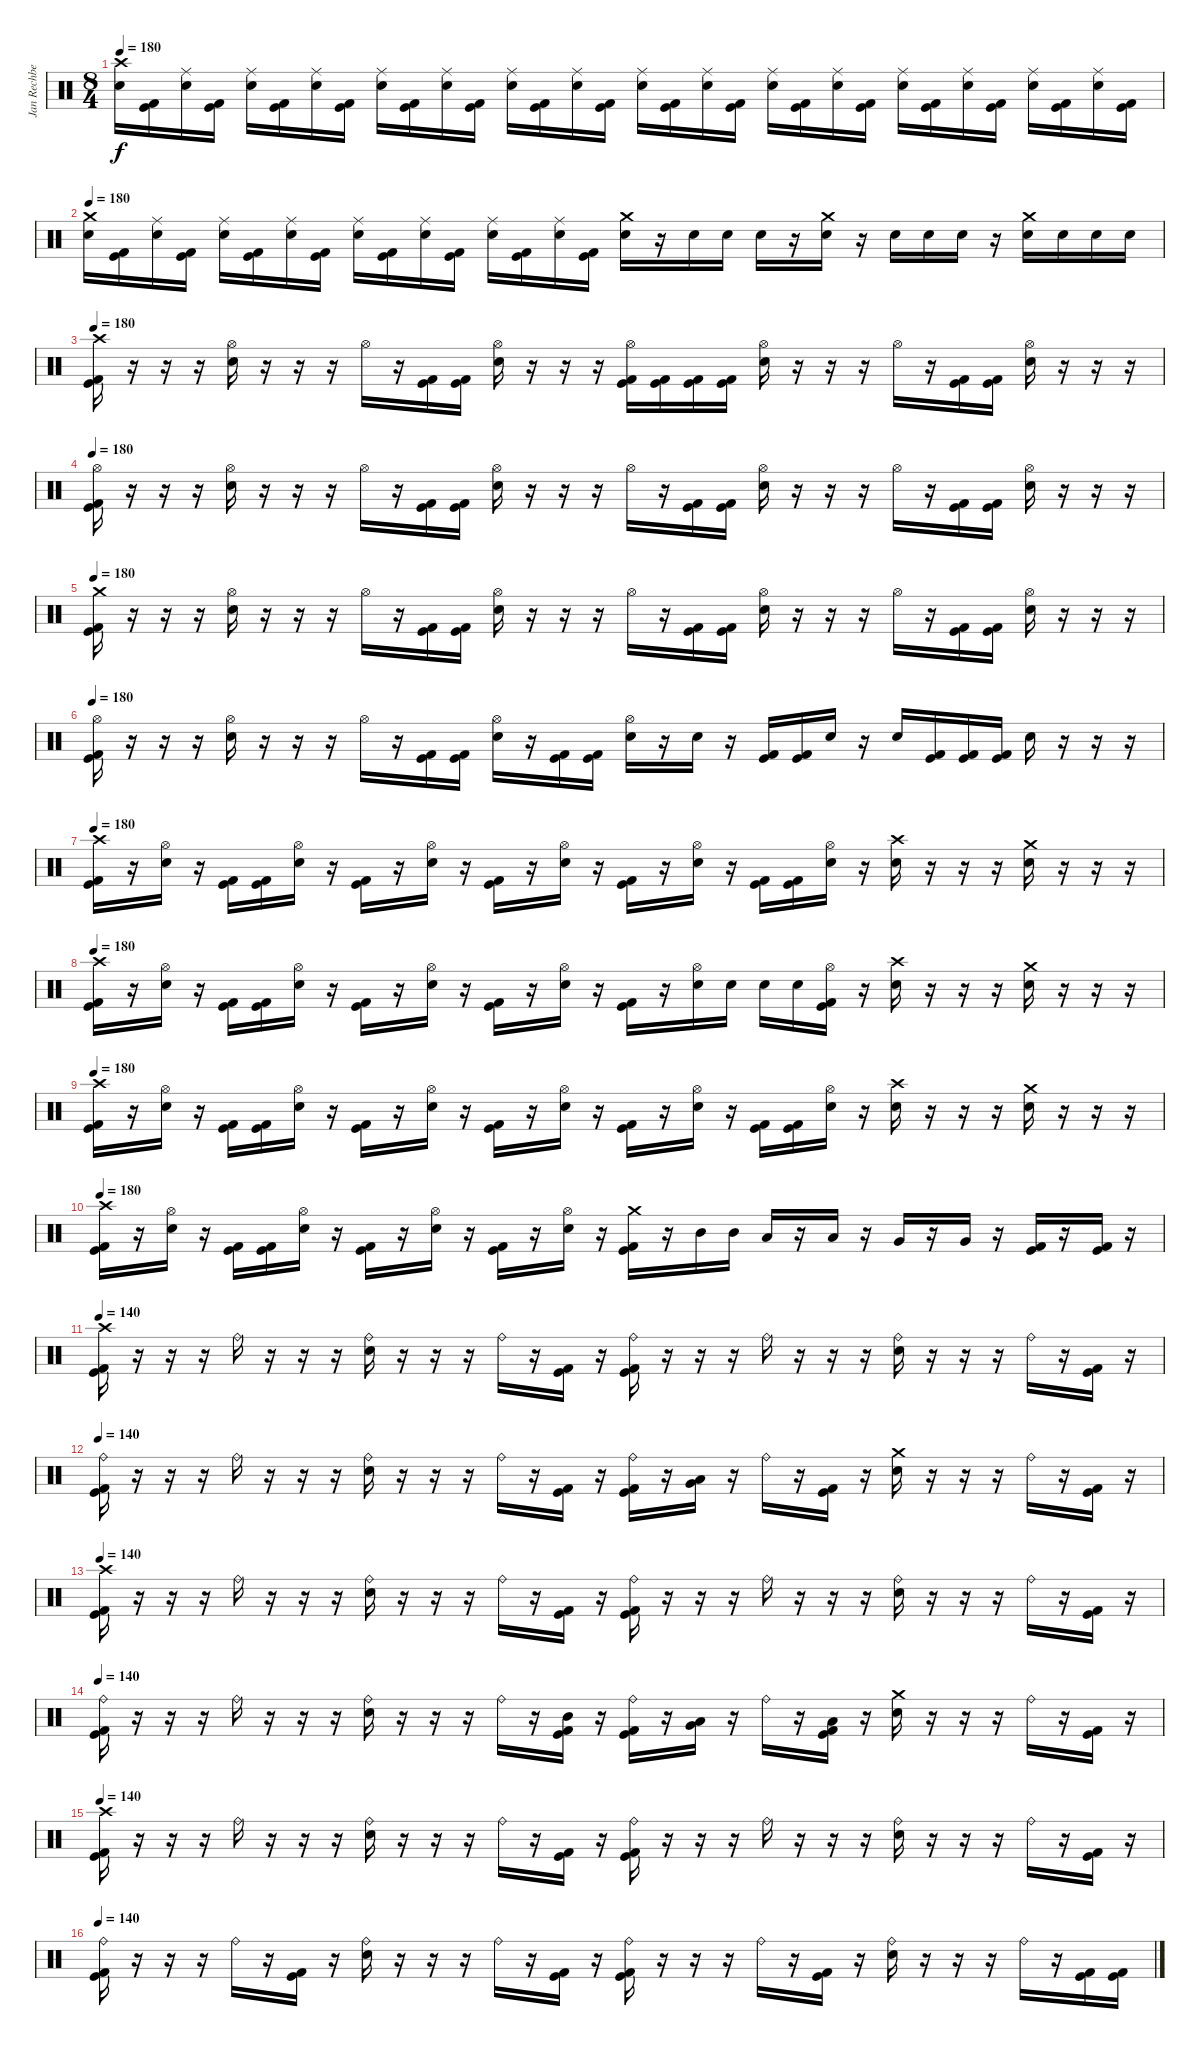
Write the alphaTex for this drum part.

\track ("Jan Rechberger" "Jan Rechbe") {instrument percussion}
\staff {score}
\articulation defaults
\ts (8 4)
\tempo 180
\clef neutral
\ks c
("Crash high (hit)" "Electric Snare (hit)").16{dy f} ("Kick (hit)" "Kick (hit) 2").16 ("Ride (middle)" "Electric Snare (hit)").16 ("Kick (hit) 2" "Kick (hit)").16 ("Ride (middle)" "Electric Snare (hit)").16 ("Kick (hit) 2" "Kick (hit)").16 ("Ride (middle)" "Electric Snare (hit)").16 ("Kick (hit) 2" "Kick (hit)").16 ("Ride (middle)" "Electric Snare (hit)").16 ("Kick (hit) 2" "Kick (hit)").16 ("Ride (middle)" "Electric Snare (hit)").16 ("Kick (hit) 2" "Kick (hit)").16 ("Ride (middle)" "Electric Snare (hit)").16 ("Kick (hit) 2" "Kick (hit)").16 ("Ride (middle)" "Electric Snare (hit)").16 ("Kick (hit) 2" "Kick (hit)").16 ("Ride (middle)" "Electric Snare (hit)").16 ("Kick (hit) 2" "Kick (hit)").16 ("Ride (middle)" "Electric Snare (hit)").16 ("Kick (hit) 2" "Kick (hit)").16 ("Ride (middle)" "Electric Snare (hit)").16 ("Kick (hit) 2" "Kick (hit)").16 ("Ride (middle)" "Electric Snare (hit)").16 ("Kick (hit) 2" "Kick (hit)").16 ("Ride (middle)" "Electric Snare (hit)").16 ("Kick (hit) 2" "Kick (hit)").16 ("Ride (middle)" "Electric Snare (hit)").16 ("Kick (hit) 2" "Kick (hit)").16 ("Ride (middle)" "Electric Snare (hit)").16 ("Kick (hit) 2" "Kick (hit)").16 ("Ride (middle)" "Electric Snare (hit)").16 ("Kick (hit) 2" "Kick (hit)").16 |
\tempo 180
("Crash medium (hit)" "Electric Snare (hit)").16 ("Kick (hit)" "Kick (hit) 2").16 ("Ride (middle)" "Electric Snare (hit)").16 ("Kick (hit) 2" "Kick (hit)").16 ("Ride (middle)" "Electric Snare (hit)").16 ("Kick (hit) 2" "Kick (hit)").16 ("Ride (middle)" "Electric Snare (hit)").16 ("Kick (hit) 2" "Kick (hit)").16 ("Ride (middle)" "Electric Snare (hit)").16 ("Kick (hit) 2" "Kick (hit)").16 ("Ride (middle)" "Electric Snare (hit)").16 ("Kick (hit) 2" "Kick (hit)").16 ("Ride (middle)" "Electric Snare (hit)").16 ("Kick (hit) 2" "Kick (hit)").16 ("Ride (middle)" "Electric Snare (hit)").16 ("Kick (hit) 2" "Kick (hit)").16 ("Crash medium (hit)" "Electric Snare (hit)").16 r.16 "Electric Snare (hit)".16 "Electric Snare (hit)".16 "Electric Snare (hit)".16 r.16 ("Crash medium (hit)" "Electric Snare (hit)").16 r.16 "Electric Snare (hit)".16 "Electric Snare (hit)".16 "Electric Snare (hit)".16 r.16 ("Crash medium (hit)" "Electric Snare (hit)").16 "Electric Snare (hit)".16 "Electric Snare (hit)".16 "Electric Snare (hit)".16 |
\tempo 180
("Crash high (hit)" "Kick (hit) 2" "Kick (hit)").16 r.16 r.16 r.16 ("Hi-Hat (open)" "Electric Snare (hit)").16 r.16 r.16 r.16 "Hi-Hat (open)".16 r.16 ("Kick (hit) 2" "Kick (hit)").16 ("Kick (hit) 2" "Kick (hit)").16 ("Hi-Hat (open)" "Electric Snare (hit)").16 r.16 r.16 r.16 ("Hi-Hat (open)" "Kick (hit) 2" "Kick (hit)").16 ("Kick (hit) 2" "Kick (hit)").16 ("Kick (hit) 2" "Kick (hit)").16 ("Kick (hit) 2" "Kick (hit)").16 ("Hi-Hat (open)" "Electric Snare (hit)").16 r.16 r.16 r.16 "Hi-Hat (open)".16 r.16 ("Kick (hit) 2" "Kick (hit)").16 ("Kick (hit) 2" "Kick (hit)").16 ("Hi-Hat (open)" "Electric Snare (hit)").16 r.16 r.16 r.16 |
\tempo 180
("Hi-Hat (open)" "Kick (hit) 2" "Kick (hit)").16 r.16 r.16 r.16 ("Hi-Hat (open)" "Electric Snare (hit)").16 r.16 r.16 r.16 "Hi-Hat (open)".16 r.16 ("Kick (hit) 2" "Kick (hit)").16 ("Kick (hit) 2" "Kick (hit)").16 ("Hi-Hat (open)" "Electric Snare (hit)").16 r.16 r.16 r.16 "Hi-Hat (open)".16 r.16 ("Kick (hit) 2" "Kick (hit)").16 ("Kick (hit) 2" "Kick (hit)").16 ("Hi-Hat (open)" "Electric Snare (hit)").16 r.16 r.16 r.16 "Hi-Hat (open)".16 r.16 ("Kick (hit) 2" "Kick (hit)").16 ("Kick (hit) 2" "Kick (hit)").16 ("Hi-Hat (open)" "Electric Snare (hit)").16 r.16 r.16 r.16 |
\tempo 180
("Crash medium (hit)" "Kick (hit) 2" "Kick (hit)").16 r.16 r.16 r.16 ("Hi-Hat (open)" "Electric Snare (hit)").16 r.16 r.16 r.16 "Hi-Hat (open)".16 r.16 ("Kick (hit) 2" "Kick (hit)").16 ("Kick (hit) 2" "Kick (hit)").16 ("Hi-Hat (open)" "Electric Snare (hit)").16 r.16 r.16 r.16 "Hi-Hat (open)".16 r.16 ("Kick (hit) 2" "Kick (hit)").16 ("Kick (hit) 2" "Kick (hit)").16 ("Hi-Hat (open)" "Electric Snare (hit)").16 r.16 r.16 r.16 "Hi-Hat (open)".16 r.16 ("Kick (hit) 2" "Kick (hit)").16 ("Kick (hit) 2" "Kick (hit)").16 ("Hi-Hat (open)" "Electric Snare (hit)").16 r.16 r.16 r.16 |
\tempo 180
("Hi-Hat (open)" "Kick (hit) 2" "Kick (hit)").16 r.16 r.16 r.16 ("Hi-Hat (open)" "Electric Snare (hit)").16 r.16 r.16 r.16 "Hi-Hat (open)".16 r.16 ("Kick (hit) 2" "Kick (hit)").16 ("Kick (hit) 2" "Kick (hit)").16 ("Hi-Hat (open)" "Electric Snare (hit)").16 r.16 ("Kick (hit) 2" "Kick (hit)").16 ("Kick (hit) 2" "Kick (hit)").16 ("Hi-Hat (open)" "Electric Snare (hit)").16 r.16 "Electric Snare (hit)".16 r.16 ("Kick (hit) 2" "Kick (hit)").16 ("Kick (hit) 2" "Kick (hit)").16 "Electric Snare (hit)".16 r.16 "Electric Snare (hit)".16 ("Kick (hit) 2" "Kick (hit)").16 ("Kick (hit) 2" "Kick (hit)").16 ("Kick (hit) 2" "Kick (hit)").16 "Electric Snare (hit)".16 r.16 r.16 r.16 |
\tempo 180
("Crash high (hit)" "Kick (hit) 2" "Kick (hit)").16 r.16 ("Hi-Hat (open)" "Electric Snare (hit)").16 r.16 ("Kick (hit) 2" "Kick (hit)").16 ("Kick (hit) 2" "Kick (hit)").16 ("Hi-Hat (open)" "Electric Snare (hit)").16 r.16 ("Kick (hit) 2" "Kick (hit)").16 r.16 ("Hi-Hat (open)" "Electric Snare (hit)").16 r.16 ("Kick (hit) 2" "Kick (hit)").16 r.16 ("Hi-Hat (open)" "Electric Snare (hit)").16 r.16 ("Kick (hit) 2" "Kick (hit)").16 r.16 ("Hi-Hat (open)" "Electric Snare (hit)").16 r.16 ("Kick (hit) 2" "Kick (hit)").16 ("Kick (hit) 2" "Kick (hit)").16 ("Hi-Hat (open)" "Electric Snare (hit)").16 r.16 ("Crash high (hit)" "Electric Snare (hit)").16 r.16 r.16 r.16 ("Crash medium (hit)" "Electric Snare (hit)").16 r.16 r.16 r.16 |
\tempo 180
("Crash high (hit)" "Kick (hit) 2" "Kick (hit)").16 r.16 ("Hi-Hat (open)" "Electric Snare (hit)").16 r.16 ("Kick (hit) 2" "Kick (hit)").16 ("Kick (hit) 2" "Kick (hit)").16 ("Hi-Hat (open)" "Electric Snare (hit)").16 r.16 ("Kick (hit) 2" "Kick (hit)").16 r.16 ("Hi-Hat (open)" "Electric Snare (hit)").16 r.16 ("Kick (hit) 2" "Kick (hit)").16 r.16 ("Hi-Hat (open)" "Electric Snare (hit)").16 r.16 ("Kick (hit) 2" "Kick (hit)").16 r.16 ("Hi-Hat (open)" "Electric Snare (hit)").16 "Electric Snare (hit)".16 "Electric Snare (hit)".16 "Electric Snare (hit)".16 ("Hi-Hat (open)" "Kick (hit) 2" "Kick (hit)").16 r.16 ("Crash high (hit)" "Electric Snare (hit)").16 r.16 r.16 r.16 ("Crash medium (hit)" "Electric Snare (hit)").16 r.16 r.16 r.16 |
\tempo 180
("Crash high (hit)" "Kick (hit) 2" "Kick (hit)").16 r.16 ("Hi-Hat (open)" "Electric Snare (hit)").16 r.16 ("Kick (hit) 2" "Kick (hit)").16 ("Kick (hit) 2" "Kick (hit)").16 ("Hi-Hat (open)" "Electric Snare (hit)").16 r.16 ("Kick (hit) 2" "Kick (hit)").16 r.16 ("Hi-Hat (open)" "Electric Snare (hit)").16 r.16 ("Kick (hit) 2" "Kick (hit)").16 r.16 ("Hi-Hat (open)" "Electric Snare (hit)").16 r.16 ("Kick (hit) 2" "Kick (hit)").16 r.16 ("Hi-Hat (open)" "Electric Snare (hit)").16 r.16 ("Kick (hit) 2" "Kick (hit)").16 ("Kick (hit) 2" "Kick (hit)").16 ("Hi-Hat (open)" "Electric Snare (hit)").16 r.16 ("Crash high (hit)" "Electric Snare (hit)").16 r.16 r.16 r.16 ("Crash medium (hit)" "Electric Snare (hit)").16 r.16 r.16 r.16 |
\tempo 180
("Crash high (hit)" "Kick (hit) 2" "Kick (hit)").16 r.16 ("Hi-Hat (open)" "Electric Snare (hit)").16 r.16 ("Kick (hit) 2" "Kick (hit)").16 ("Kick (hit) 2" "Kick (hit)").16 ("Hi-Hat (open)" "Electric Snare (hit)").16 r.16 ("Kick (hit) 2" "Kick (hit)").16 r.16 ("Hi-Hat (open)" "Electric Snare (hit)").16 r.16 ("Kick (hit) 2" "Kick (hit)").16 r.16 ("Hi-Hat (open)" "Electric Snare (hit)").16 r.16 ("Crash medium (hit)" "Kick (hit) 2" "Kick (hit)").16 r.16 "Mid Tom (hit)".16 "Mid Tom (hit)".16 "Low Tom (hit)".16 r.16 "Low Tom (hit)".16 r.16 "Very Low Tom (hit)".16 r.16 "Very Low Tom (hit)".16 r.16 ("Kick (hit) 2" "Kick (hit)").16 r.16 ("Kick (hit) 2" "Kick (hit)").16 r.16 |
\tempo 140
("Crash high (hit)" "Kick (hit) 2" "Kick (hit)").16 r.16 r.16 r.16 "Ride (bell)".16 r.16 r.16 r.16 ("Ride (bell)" "Electric Snare (hit)").16 r.16 r.16 r.16 "Ride (bell)".16 r.16 ("Kick (hit) 2" "Kick (hit)").16 r.16 ("Ride (bell)" "Kick (hit) 2" "Kick (hit)").16 r.16 r.16 r.16 "Ride (bell)".16 r.16 r.16 r.16 ("Ride (bell)" "Electric Snare (hit)").16 r.16 r.16 r.16 "Ride (bell)".16 r.16 ("Kick (hit) 2" "Kick (hit)").16 r.16 |
\tempo 140
("Ride (bell)" "Kick (hit) 2" "Kick (hit)").16 r.16 r.16 r.16 "Ride (bell)".16 r.16 r.16 r.16 ("Ride (bell)" "Electric Snare (hit)").16 r.16 r.16 r.16 "Ride (bell)".16 r.16 ("Kick (hit) 2" "Kick (hit)").16 r.16 ("Ride (bell)" "Kick (hit) 2" "Kick (hit)").16 r.16 ("Low Tom (hit)" "Very Low Tom (hit)").16 r.16 "Ride (bell)".16 r.16 ("Kick (hit) 2" "Kick (hit)").16 r.16 ("Crash medium (hit)" "Electric Snare (hit)").16 r.16 r.16 r.16 "Ride (bell)".16 r.16 ("Kick (hit) 2" "Kick (hit)").16 r.16 |
\tempo 140
("Crash high (hit)" "Kick (hit) 2" "Kick (hit)").16 r.16 r.16 r.16 "Ride (bell)".16 r.16 r.16 r.16 ("Ride (bell)" "Electric Snare (hit)").16 r.16 r.16 r.16 "Ride (bell)".16 r.16 ("Kick (hit) 2" "Kick (hit)").16 r.16 ("Ride (bell)" "Kick (hit) 2" "Kick (hit)").16 r.16 r.16 r.16 "Ride (bell)".16 r.16 r.16 r.16 ("Ride (bell)" "Electric Snare (hit)").16 r.16 r.16 r.16 "Ride (bell)".16 r.16 ("Kick (hit) 2" "Kick (hit)").16 r.16 |
\tempo 140
("Ride (bell)" "Kick (hit) 2" "Kick (hit)").16 r.16 r.16 r.16 "Ride (bell)".16 r.16 r.16 r.16 ("Ride (bell)" "Electric Snare (hit)").16 r.16 r.16 r.16 "Ride (bell)".16 r.16 ("Mid Tom (hit)" "Kick (hit) 2" "Kick (hit)").16 r.16 ("Ride (bell)" "Kick (hit) 2" "Kick (hit)").16 r.16 ("Low Tom (hit)" "Very Low Tom (hit)").16 r.16 "Ride (bell)".16 r.16 ("Low Floor Tom (hit)" "Kick (hit) 2" "Kick (hit)").16 r.16 ("Crash medium (hit)" "Electric Snare (hit)").16 r.16 r.16 r.16 "Ride (bell)".16 r.16 ("Kick (hit) 2" "Kick (hit)").16 r.16 |
\tempo 140
("Crash high (hit)" "Kick (hit) 2" "Kick (hit)").16 r.16 r.16 r.16 "Ride (bell)".16 r.16 r.16 r.16 ("Ride (bell)" "Electric Snare (hit)").16 r.16 r.16 r.16 "Ride (bell)".16 r.16 ("Kick (hit) 2" "Kick (hit)").16 r.16 ("Ride (bell)" "Kick (hit) 2" "Kick (hit)").16 r.16 r.16 r.16 "Ride (bell)".16 r.16 r.16 r.16 ("Ride (bell)" "Electric Snare (hit)").16 r.16 r.16 r.16 "Ride (bell)".16 r.16 ("Kick (hit) 2" "Kick (hit)").16 r.16 |
\tempo 140
("Ride (bell)" "Kick (hit) 2" "Kick (hit)").16 r.16 r.16 r.16 "Ride (bell)".16 r.16 ("Kick (hit) 2" "Kick (hit)").16 r.16 ("Ride (bell)" "Electric Snare (hit)").16 r.16 r.16 r.16 "Ride (bell)".16 r.16 ("Kick (hit) 2" "Kick (hit)").16 r.16 ("Ride (bell)" "Kick (hit) 2" "Kick (hit)").16 r.16 r.16 r.16 "Ride (bell)".16 r.16 ("Kick (hit) 2" "Kick (hit)").16 r.16 ("Ride (bell)" "Electric Snare (hit)").16 r.16 r.16 r.16 "Ride (bell)".16 r.16 ("Kick (hit) 2" "Kick (hit)").16 ("Kick (hit) 2" "Kick (hit)").16
